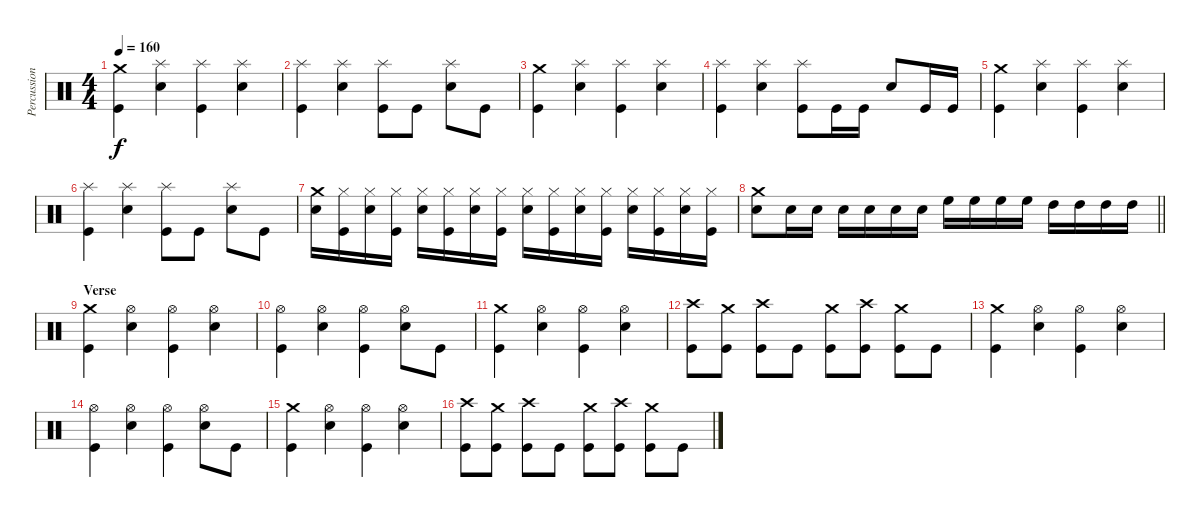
\track ("Percussion" "Percussion") {instrument percussion}
\staff {score}
\articulation defaults
\ts (4 4)
\tempo 160
\clef neutral
\ks c
("Crash medium (hit)" "Kick (hit)").4{dy f} ("Splash (hit)" "Snare (hit) 2").4 ("Splash (hit)" "Kick (hit)").4 ("Splash (hit)" "Snare (hit) 2").4 |
("Splash (hit)" "Kick (hit)").4 ("Splash (hit)" "Snare (hit) 2").4 ("Splash (hit)" "Kick (hit)").8 "Kick (hit)".8 ("Splash (hit)" "Snare (hit) 2").8 "Kick (hit)".8 |
("Crash medium (hit)" "Kick (hit)").4 ("Splash (hit)" "Snare (hit) 2").4 ("Splash (hit)" "Kick (hit)").4 ("Splash (hit)" "Snare (hit) 2").4 |
("Splash (hit)" "Kick (hit)").4 ("Splash (hit)" "Snare (hit) 2").4 ("Splash (hit)" "Kick (hit)").8 "Kick (hit)".16 "Kick (hit)".16 "Snare (hit) 2".8 "Kick (hit)".16 "Kick (hit)".16 |
("Crash medium (hit)" "Kick (hit)").4 ("Splash (hit)" "Snare (hit) 2").4 ("Splash (hit)" "Kick (hit)").4 ("Splash (hit)" "Snare (hit) 2").4 |
("Splash (hit)" "Kick (hit)").4 ("Splash (hit)" "Snare (hit) 2").4 ("Splash (hit)" "Kick (hit)").8 "Kick (hit)".8 ("Splash (hit)" "Snare (hit) 2").8 "Kick (hit)".8 |
("Crash medium (hit)" "Snare (hit) 2").16 ("Hi-Hat (closed)" "Kick (hit)").16 ("Hi-Hat (closed)" "Snare (hit) 2").16 ("Hi-Hat (closed)" "Kick (hit)").16 ("Hi-Hat (closed)" "Snare (hit) 2").16 ("Hi-Hat (closed)" "Kick (hit)").16 ("Hi-Hat (closed)" "Snare (hit) 2").16 ("Hi-Hat (closed)" "Kick (hit)").16 ("Hi-Hat (closed)" "Snare (hit) 2").16 ("Hi-Hat (closed)" "Kick (hit)").16 ("Hi-Hat (closed)" "Snare (hit) 2").16 ("Hi-Hat (closed)" "Kick (hit)").16 ("Hi-Hat (closed)" "Snare (hit) 2").16 ("Hi-Hat (closed)" "Kick (hit)").16 ("Hi-Hat (closed)" "Snare (hit) 2").16 ("Hi-Hat (closed)" "Kick (hit)").16 |
\barLineRight lightlight
("Crash medium (hit)" "Snare (hit) 2").8 "Snare (hit) 2".16 "Snare (hit) 2".16 "Snare (hit) 2".16 "Snare (hit) 2".16 "Snare (hit) 2".16 "Snare (hit) 2".16 "High Floor Tom (hit)".16 "High Floor Tom (hit)".16 "High Floor Tom (hit)".16 "High Floor Tom (hit)".16 "High Tom (hit)".16 "High Tom (hit)".16 "High Tom (hit)".16 "High Tom (hit)".16 |
\section ("" "Verse")
("Crash medium (hit)" "Kick (hit)").4 ("Hi-Hat (open)" "Snare (hit) 2").4 ("Hi-Hat (open)" "Kick (hit)").4 ("Hi-Hat (open)" "Snare (hit) 2").4 |
("Hi-Hat (open)" "Kick (hit)").4 ("Hi-Hat (open)" "Snare (hit) 2").4 ("Hi-Hat (open)" "Kick (hit)").4 ("Hi-Hat (open)" "Snare (hit) 2").8 "Kick (hit)".8 |
("Crash medium (hit)" "Kick (hit)").4 ("Hi-Hat (open)" "Snare (hit) 2").4 ("Hi-Hat (open)" "Kick (hit)").4 ("Hi-Hat (open)" "Snare (hit) 2").4 |
("Crash high (hit)" "Kick (hit)").8 ("Crash medium (hit)" "Kick (hit)").8 ("Crash high (hit)" "Kick (hit)").8 "Kick (hit)".8 ("Crash medium (hit)" "Kick (hit)").8 ("Crash high (hit)" "Kick (hit)").8 ("Crash medium (hit)" "Kick (hit)").8 "Kick (hit)".8 |
("Crash medium (hit)" "Kick (hit)").4 ("Hi-Hat (open)" "Snare (hit) 2").4 ("Hi-Hat (open)" "Kick (hit)").4 ("Hi-Hat (open)" "Snare (hit) 2").4 |
("Hi-Hat (open)" "Kick (hit)").4 ("Hi-Hat (open)" "Snare (hit) 2").4 ("Hi-Hat (open)" "Kick (hit)").4 ("Hi-Hat (open)" "Snare (hit) 2").8 "Kick (hit)".8 |
("Crash medium (hit)" "Kick (hit)").4 ("Hi-Hat (open)" "Snare (hit) 2").4 ("Hi-Hat (open)" "Kick (hit)").4 ("Hi-Hat (open)" "Snare (hit) 2").4 |
("Crash high (hit)" "Kick (hit)").8 ("Crash medium (hit)" "Kick (hit)").8 ("Crash high (hit)" "Kick (hit)").8 "Kick (hit)".8 ("Crash medium (hit)" "Kick (hit)").8 ("Crash high (hit)" "Kick (hit)").8 ("Crash medium (hit)" "Kick (hit)").8 "Kick (hit)".8
